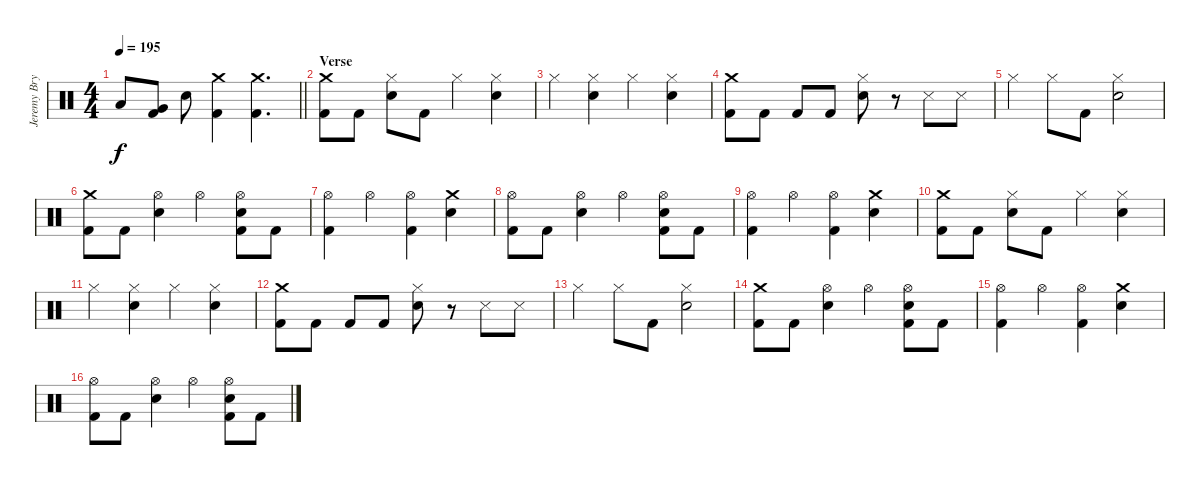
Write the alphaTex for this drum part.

\track ("Jeremy Bryan - Drums" "Jeremy Bry") {instrument percussion}
\staff {score}
\articulation defaults
\ts (4 4)
\tempo 195
\clef neutral
\barLineRight lightlight
\ks c "Low Tom (hit)".8{dy f}
("Very Low Tom (hit)" "Kick (hit) 2").8 "Electric Snare (hit)".8 ("Crash medium (hit)" "Kick (hit) 2").4 ("Crash medium (hit)" "Kick (hit) 2").4{d} |
\section ("" "Verse")
("Crash medium (hit)" "Kick (hit) 2").8 "Kick (hit) 2".8 ("Hi-Hat (closed)" "Electric Snare (hit)").8 "Kick (hit) 2".8 "Hi-Hat (closed)".4 ("Hi-Hat (closed)" "Electric Snare (hit)").4 |
"Hi-Hat (closed)".4 ("Hi-Hat (closed)" "Electric Snare (hit)").4 "Hi-Hat (closed)".4 ("Hi-Hat (closed)" "Electric Snare (hit)").4 |
("Crash medium (hit)" "Kick (hit) 2").8 "Kick (hit) 2".8 "Kick (hit) 2".8 "Kick (hit) 2".8 ("Hi-Hat (closed)" "Electric Snare (hit)").8 r.8 "Snare (side stick) 3".8 "Snare (side stick) 3".8 |
"Hi-Hat (closed)".4 "Hi-Hat (closed)".8 "Kick (hit) 2".8 ("Hi-Hat (closed)" "Electric Snare (hit)").2 |
("Crash medium (hit)" "Kick (hit) 2").8 "Kick (hit) 2".8 ("Hi-Hat (open)" "Electric Snare (hit)").4 "Hi-Hat (open)".4 ("Hi-Hat (open)" "Electric Snare (hit)" "Kick (hit) 2").8 "Kick (hit) 2".8 |
("Hi-Hat (open)" "Kick (hit) 2").4 "Hi-Hat (open)".4 ("Hi-Hat (open)" "Kick (hit) 2").4 ("Crash medium (hit)" "Electric Snare (hit)").4 |
("Hi-Hat (open)" "Kick (hit) 2").8 "Kick (hit) 2".8 ("Hi-Hat (open)" "Electric Snare (hit)").4 "Hi-Hat (open)".4 ("Hi-Hat (open)" "Electric Snare (hit)" "Kick (hit) 2").8 "Kick (hit) 2".8 |
("Hi-Hat (open)" "Kick (hit) 2").4 "Hi-Hat (open)".4 ("Hi-Hat (open)" "Kick (hit) 2").4 ("Crash medium (hit)" "Electric Snare (hit)").4 |
("Crash medium (hit)" "Kick (hit) 2").8 "Kick (hit) 2".8 ("Hi-Hat (closed)" "Electric Snare (hit)").8 "Kick (hit) 2".8 "Hi-Hat (closed)".4 ("Hi-Hat (closed)" "Electric Snare (hit)").4 |
"Hi-Hat (closed)".4 ("Hi-Hat (closed)" "Electric Snare (hit)").4 "Hi-Hat (closed)".4 ("Hi-Hat (closed)" "Electric Snare (hit)").4 |
("Crash medium (hit)" "Kick (hit) 2").8 "Kick (hit) 2".8 "Kick (hit) 2".8 "Kick (hit) 2".8 ("Hi-Hat (closed)" "Electric Snare (hit)").8 r.8 "Snare (side stick) 3".8 "Snare (side stick) 3".8 |
"Hi-Hat (closed)".4 "Hi-Hat (closed)".8 "Kick (hit) 2".8 ("Hi-Hat (closed)" "Electric Snare (hit)").2 |
("Crash medium (hit)" "Kick (hit) 2").8 "Kick (hit) 2".8 ("Hi-Hat (open)" "Electric Snare (hit)").4 "Hi-Hat (open)".4 ("Hi-Hat (open)" "Electric Snare (hit)" "Kick (hit) 2").8 "Kick (hit) 2".8 |
("Hi-Hat (open)" "Kick (hit) 2").4 "Hi-Hat (open)".4 ("Hi-Hat (open)" "Kick (hit) 2").4 ("Crash medium (hit)" "Electric Snare (hit)").4 |
("Hi-Hat (open)" "Kick (hit) 2").8 "Kick (hit) 2".8 ("Hi-Hat (open)" "Electric Snare (hit)").4 "Hi-Hat (open)".4 ("Hi-Hat (open)" "Electric Snare (hit)" "Kick (hit) 2").8 "Kick (hit) 2".8
